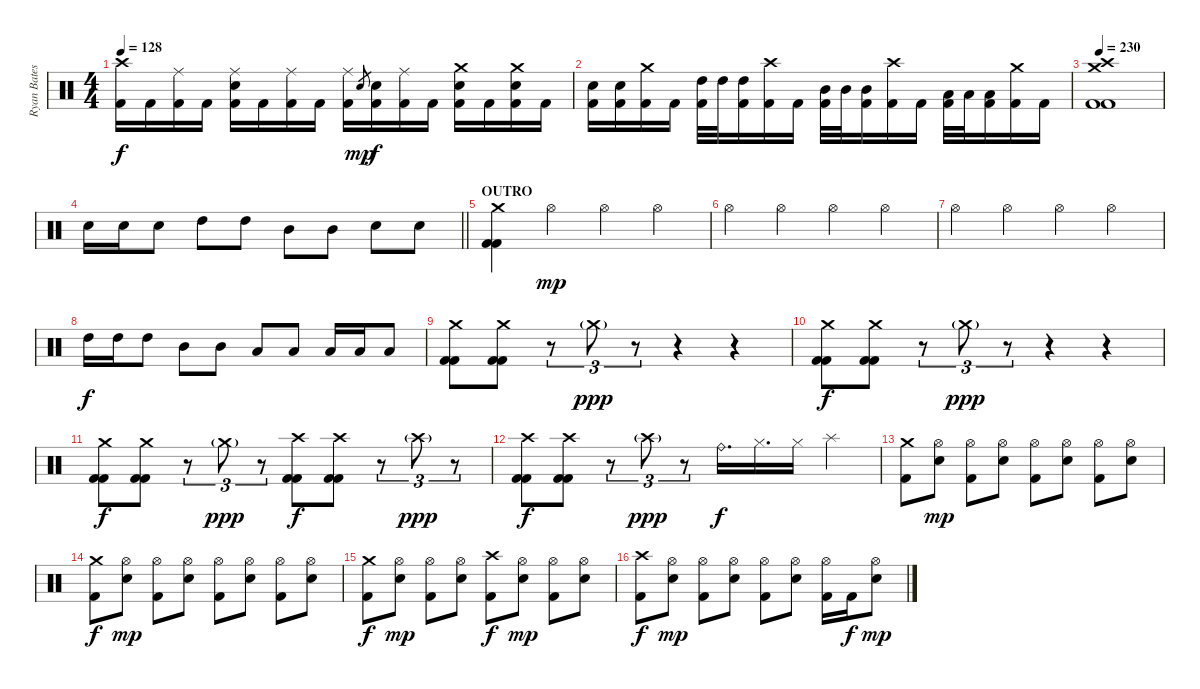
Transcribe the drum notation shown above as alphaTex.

\track ("Ryan Bates" "Ryan Bates") {instrument percussion}
\staff {score}
\articulation defaults
\ts (4 4)
\tempo 128
\clef neutral
\ks c
("Crash high (hit)" "Kick (hit) 2").16{dy f} "Kick (hit) 2".16 ("Ride (middle)" "Kick (hit) 2").16 "Kick (hit) 2".16 ("Ride (middle)" "Electric Snare (hit)" "Kick (hit) 2").16 "Kick (hit) 2".16 ("Ride (middle)" "Kick (hit) 2").16 "Kick (hit) 2".16 ("Ride (middle)" "Kick (hit) 2").16 "Electric Snare (hit)".8{gr dy mp} ("Electric Snare (hit)" "Kick (hit) 2").16{dy f} ("Ride (middle)" "Kick (hit) 2").16 "Kick (hit) 2".16 ("Crash medium (hit)" "Electric Snare (hit)" "Kick (hit) 2").16 "Kick (hit) 2".16 ("Crash medium (hit)" "Electric Snare (hit)" "Kick (hit) 2").16 "Kick (hit) 2".16 |
("Electric Snare (hit)" "Kick (hit) 2").16 ("Electric Snare (hit)" "Kick (hit) 2").16 ("Crash medium (hit)" "Kick (hit) 2").16 "Kick (hit) 2".16 ("High Tom (hit)" "Kick (hit) 2").32 "High Tom (hit)".32 ("High Tom (hit)" "Kick (hit) 2").16 ("Crash high (hit)" "Kick (hit) 2").16 "Kick (hit) 2".16 ("Mid Tom (hit)" "Kick (hit) 2").32 "Mid Tom (hit)".32 ("Mid Tom (hit)" "Kick (hit) 2").16 ("Crash high (hit)" "Kick (hit) 2").16 "Kick (hit) 2".16 ("Low Tom (hit)" "Kick (hit) 2").32 "Low Tom (hit)".32 ("Low Tom (hit)" "Kick (hit) 2").16 ("Crash medium (hit)" "Kick (hit) 2").16 "Kick (hit) 2".16 |
\tempo 230
("Crash medium (hit)" "Crash high (hit)" "Kick (hit) 2" "Kick (hit) 2").1 |
\barLineRight lightlight "Electric Snare (hit)".16 "Electric Snare (hit)".16 "Electric Snare (hit)".8 "High Tom (hit)".8 "High Tom (hit)".8 "Mid Tom (hit)".8 "Mid Tom (hit)".8 "Electric Snare (hit)".8 "Electric Snare (hit)".8
|
\section ("" "OUTRO")
("Crash medium (hit)" "Kick (hit) 2" "Kick (hit) 2").4 "Hi-Hat (open)".4{dy mp} "Hi-Hat (open)".4 "Hi-Hat (open)".4 |
"Hi-Hat (open)".4 "Hi-Hat (open)".4 "Hi-Hat (open)".4 "Hi-Hat (open)".4 |
"Hi-Hat (open)".4 "Hi-Hat (open)".4 "Hi-Hat (open)".4 "Hi-Hat (open)".4 |
"High Tom (hit)".16{dy f} "High Tom (hit)".16 "High Tom (hit)".8 "Mid Tom (hit)".8 "Mid Tom (hit)".8 "Low Tom (hit)".8 "Low Tom (hit)".8 "Low Tom (hit)".16 "Low Tom (hit)".16 "Low Tom (hit)".8 |
("Crash medium (hit)" "Kick (hit) 2" "Kick (hit) 2").8 ("Crash medium (hit)" "Kick (hit) 2" "Kick (hit) 2").8 r.8{tu (3 2)} "Crash medium (hit)"{g}.8{tu (3 2) dy ppp} r.8{tu (3 2)} r.4 r.4 |
("Crash medium (hit)" "Kick (hit) 2" "Kick (hit) 2").8{dy f} ("Crash medium (hit)" "Kick (hit) 2" "Kick (hit) 2").8 r.8{tu (3 2)} "Crash medium (hit)"{g}.8{tu (3 2) dy ppp} r.8{tu (3 2)} r.4 r.4 |
("Crash medium (hit)" "Kick (hit) 2" "Kick (hit) 2").8{dy f} ("Crash medium (hit)" "Kick (hit) 2" "Kick (hit) 2").8 r.8{tu (3 2)} "Crash medium (hit)"{g}.8{tu (3 2) dy ppp} r.8{tu (3 2)} ("Crash high (hit)" "Kick (hit) 2" "Kick (hit) 2").8{dy f} ("Crash high (hit)" "Kick (hit) 2" "Kick (hit) 2").8 r.8{tu (3 2)} "Crash high (hit)"{g}.8{tu (3 2) dy ppp} r.8{tu (3 2)} |
("Crash high (hit)" "Kick (hit) 2" "Kick (hit) 2").8{dy f} ("Crash high (hit)" "Kick (hit) 2" "Kick (hit) 2").8 r.8{tu (3 2)} "Crash high (hit)"{g}.8{tu (3 2) dy ppp} r.8{tu (3 2)} "Ride (bell)".16{d dy f} "Hi-Hat (closed)".16{d} "Hi-Hat (closed)".16 "Splash (hit)".4 |
("Crash medium (hit)" "Kick (hit) 2").8 ("Hi-Hat (open)" "Electric Snare (hit)").8{dy mp} ("Hi-Hat (open)" "Kick (hit) 2").8 ("Hi-Hat (open)" "Electric Snare (hit)").8 ("Hi-Hat (open)" "Kick (hit) 2").8 ("Hi-Hat (open)" "Electric Snare (hit)").8 ("Hi-Hat (open)" "Kick (hit) 2").8 ("Hi-Hat (open)" "Electric Snare (hit)").8 |
("Crash medium (hit)" "Kick (hit) 2").8{dy f} ("Hi-Hat (open)" "Electric Snare (hit)").8{dy mp} ("Hi-Hat (open)" "Kick (hit) 2").8 ("Hi-Hat (open)" "Electric Snare (hit)").8 ("Hi-Hat (open)" "Kick (hit) 2").8 ("Hi-Hat (open)" "Electric Snare (hit)").8 ("Hi-Hat (open)" "Kick (hit) 2").8 ("Hi-Hat (open)" "Electric Snare (hit)").8 |
("Crash medium (hit)" "Kick (hit) 2").8{dy f} ("Hi-Hat (open)" "Electric Snare (hit)").8{dy mp} ("Hi-Hat (open)" "Kick (hit) 2").8 ("Hi-Hat (open)" "Electric Snare (hit)").8 ("Crash high (hit)" "Kick (hit) 2").8{dy f} ("Hi-Hat (open)" "Electric Snare (hit)").8{dy mp} ("Hi-Hat (open)" "Kick (hit) 2").8 ("Hi-Hat (open)" "Electric Snare (hit)").8 |
("Crash high (hit)" "Kick (hit) 2").8{dy f} ("Hi-Hat (open)" "Electric Snare (hit)").8{dy mp} ("Hi-Hat (open)" "Kick (hit) 2").8 ("Hi-Hat (open)" "Electric Snare (hit)").8 ("Hi-Hat (open)" "Kick (hit) 2").8 ("Hi-Hat (open)" "Electric Snare (hit)").8 ("Hi-Hat (open)" "Kick (hit) 2").16 "Kick (hit) 2".16{dy f} ("Hi-Hat (open)" "Electric Snare (hit)").8{dy mp}
